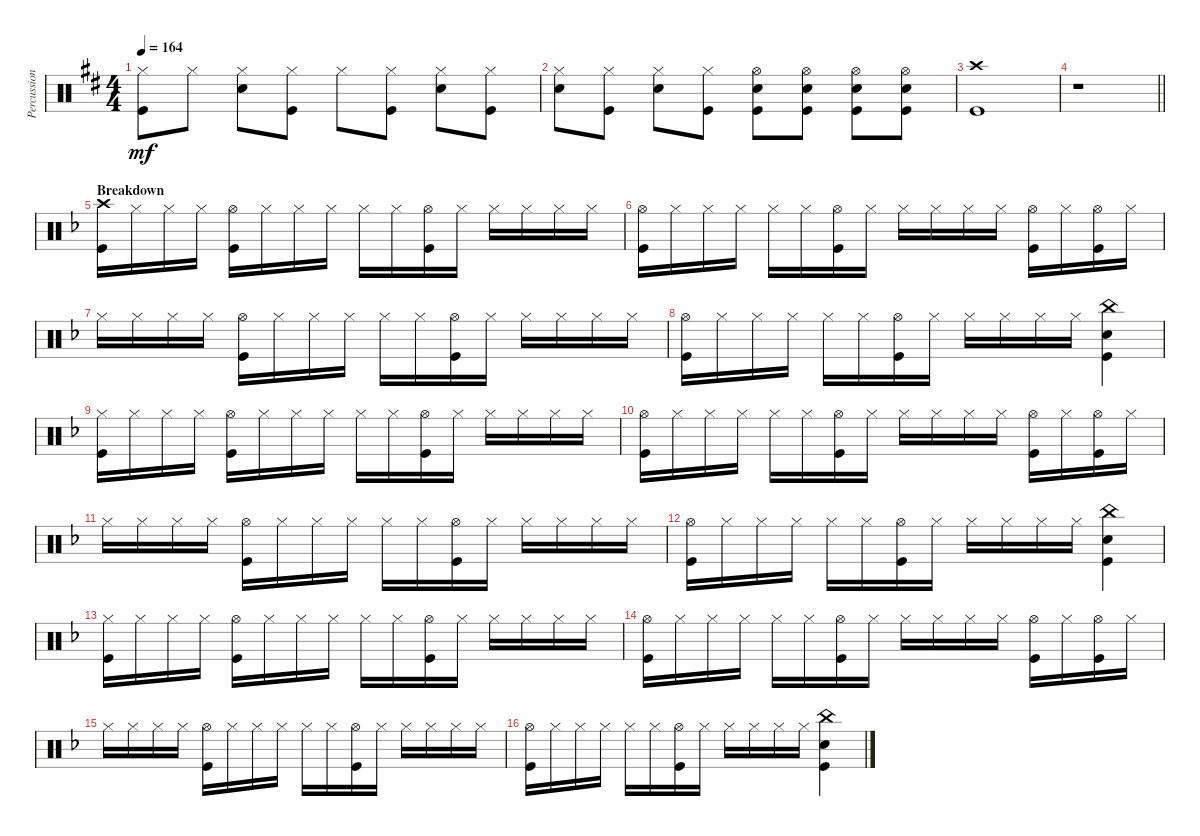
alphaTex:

\track ("Percussions" "Percussion") {instrument percussion}
\staff {score}
\articulation defaults
\ts (4 4)
\tempo 164
\clef neutral
\ks bminor
("Hi-Hat (closed)" "Kick (hit)").8{dy mf} "Hi-Hat (closed)".8 ("Hi-Hat (closed)" "Electric Snare (hit)").8 ("Hi-Hat (closed)" "Kick (hit)").8 "Hi-Hat (closed)".8 ("Hi-Hat (closed)" "Kick (hit)").8 ("Hi-Hat (closed)" "Electric Snare (hit)").8 ("Hi-Hat (closed)" "Kick (hit)").8 |
("Hi-Hat (closed)" "Electric Snare (hit)").8 ("Hi-Hat (closed)" "Kick (hit)").8 ("Hi-Hat (closed)" "Electric Snare (hit)").8 ("Hi-Hat (closed)" "Kick (hit)").8 ("Hi-Hat (open)" "Electric Snare (hit)" "Kick (hit)").8 ("Hi-Hat (open)" "Electric Snare (hit)" "Kick (hit)").8 ("Hi-Hat (open)" "Electric Snare (hit)" "Kick (hit)").8 ("Hi-Hat (open)" "Electric Snare (hit)" "Kick (hit)").8 |
("Crash high (hit)" "Kick (hit)").1 |
\barLineRight lightlight
r.1 |
\section ("" "Breakdown")
\ks dminor
("Crash high (hit)" "Kick (hit)").16 "Hi-Hat (closed)".16 "Hi-Hat (closed)".16 "Hi-Hat (closed)".16 ("Hi-Hat (open)" "Kick (hit)").16 "Hi-Hat (closed)".16 "Hi-Hat (closed)".16 "Hi-Hat (closed)".16 "Hi-Hat (closed)".16 "Hi-Hat (closed)".16 ("Hi-Hat (open)" "Kick (hit)").16 "Hi-Hat (closed)".16 "Hi-Hat (closed)".16 "Hi-Hat (closed)".16 "Hi-Hat (closed)".16 "Hi-Hat (closed)".16 |
("Hi-Hat (open)" "Kick (hit)").16 "Hi-Hat (closed)".16 "Hi-Hat (closed)".16 "Hi-Hat (closed)".16 "Hi-Hat (closed)".16 "Hi-Hat (closed)".16 ("Hi-Hat (open)" "Kick (hit)").16 "Hi-Hat (closed)".16 "Hi-Hat (closed)".16 "Hi-Hat (closed)".16 "Hi-Hat (closed)".16 "Hi-Hat (closed)".16 ("Hi-Hat (open)" "Kick (hit)").16 "Hi-Hat (closed)".16 ("Hi-Hat (open)" "Kick (hit)").16 "Hi-Hat (closed)".16 |
"Hi-Hat (closed)".16 "Hi-Hat (closed)".16 "Hi-Hat (closed)".16 "Hi-Hat (closed)".16 ("Hi-Hat (open)" "Kick (hit)").16 "Hi-Hat (closed)".16 "Hi-Hat (closed)".16 "Hi-Hat (closed)".16 "Hi-Hat (closed)".16 "Hi-Hat (closed)".16 ("Hi-Hat (open)" "Kick (hit)").16 "Hi-Hat (closed)".16 "Hi-Hat (closed)".16 "Hi-Hat (closed)".16 "Hi-Hat (closed)".16 "Hi-Hat (closed)".16 |
("Hi-Hat (open)" "Kick (hit)").16 "Hi-Hat (closed)".16 "Hi-Hat (closed)".16 "Hi-Hat (closed)".16 "Hi-Hat (closed)".16 "Hi-Hat (closed)".16 ("Hi-Hat (open)" "Kick (hit)").16 "Hi-Hat (closed)".16 "Hi-Hat (closed)".16 "Hi-Hat (closed)".16 "Hi-Hat (closed)".16 "Hi-Hat (closed)".16 ("China (hit)" "Electric Snare (hit)" "Kick (hit)").4 |
("Hi-Hat (closed)" "Kick (hit)").16 "Hi-Hat (closed)".16 "Hi-Hat (closed)".16 "Hi-Hat (closed)".16 ("Hi-Hat (open)" "Kick (hit)").16 "Hi-Hat (closed)".16 "Hi-Hat (closed)".16 "Hi-Hat (closed)".16 "Hi-Hat (closed)".16 "Hi-Hat (closed)".16 ("Hi-Hat (open)" "Kick (hit)").16 "Hi-Hat (closed)".16 "Hi-Hat (closed)".16 "Hi-Hat (closed)".16 "Hi-Hat (closed)".16 "Hi-Hat (closed)".16 |
("Hi-Hat (open)" "Kick (hit)").16 "Hi-Hat (closed)".16 "Hi-Hat (closed)".16 "Hi-Hat (closed)".16 "Hi-Hat (closed)".16 "Hi-Hat (closed)".16 ("Hi-Hat (open)" "Kick (hit)").16 "Hi-Hat (closed)".16 "Hi-Hat (closed)".16 "Hi-Hat (closed)".16 "Hi-Hat (closed)".16 "Hi-Hat (closed)".16 ("Hi-Hat (open)" "Kick (hit)").16 "Hi-Hat (closed)".16 ("Hi-Hat (open)" "Kick (hit)").16 "Hi-Hat (closed)".16 |
"Hi-Hat (closed)".16 "Hi-Hat (closed)".16 "Hi-Hat (closed)".16 "Hi-Hat (closed)".16 ("Hi-Hat (open)" "Kick (hit)").16 "Hi-Hat (closed)".16 "Hi-Hat (closed)".16 "Hi-Hat (closed)".16 "Hi-Hat (closed)".16 "Hi-Hat (closed)".16 ("Hi-Hat (open)" "Kick (hit)").16 "Hi-Hat (closed)".16 "Hi-Hat (closed)".16 "Hi-Hat (closed)".16 "Hi-Hat (closed)".16 "Hi-Hat (closed)".16 |
("Hi-Hat (open)" "Kick (hit)").16 "Hi-Hat (closed)".16 "Hi-Hat (closed)".16 "Hi-Hat (closed)".16 "Hi-Hat (closed)".16 "Hi-Hat (closed)".16 ("Hi-Hat (open)" "Kick (hit)").16 "Hi-Hat (closed)".16 "Hi-Hat (closed)".16 "Hi-Hat (closed)".16 "Hi-Hat (closed)".16 "Hi-Hat (closed)".16 ("China (hit)" "Electric Snare (hit)" "Kick (hit)").4 |
("Hi-Hat (closed)" "Kick (hit)").16 "Hi-Hat (closed)".16 "Hi-Hat (closed)".16 "Hi-Hat (closed)".16 ("Hi-Hat (open)" "Kick (hit)").16 "Hi-Hat (closed)".16 "Hi-Hat (closed)".16 "Hi-Hat (closed)".16 "Hi-Hat (closed)".16 "Hi-Hat (closed)".16 ("Hi-Hat (open)" "Kick (hit)").16 "Hi-Hat (closed)".16 "Hi-Hat (closed)".16 "Hi-Hat (closed)".16 "Hi-Hat (closed)".16 "Hi-Hat (closed)".16 |
("Hi-Hat (open)" "Kick (hit)").16 "Hi-Hat (closed)".16 "Hi-Hat (closed)".16 "Hi-Hat (closed)".16 "Hi-Hat (closed)".16 "Hi-Hat (closed)".16 ("Hi-Hat (open)" "Kick (hit)").16 "Hi-Hat (closed)".16 "Hi-Hat (closed)".16 "Hi-Hat (closed)".16 "Hi-Hat (closed)".16 "Hi-Hat (closed)".16 ("Hi-Hat (open)" "Kick (hit)").16 "Hi-Hat (closed)".16 ("Hi-Hat (open)" "Kick (hit)").16 "Hi-Hat (closed)".16 |
"Hi-Hat (closed)".16 "Hi-Hat (closed)".16 "Hi-Hat (closed)".16 "Hi-Hat (closed)".16 ("Hi-Hat (open)" "Kick (hit)").16 "Hi-Hat (closed)".16 "Hi-Hat (closed)".16 "Hi-Hat (closed)".16 "Hi-Hat (closed)".16 "Hi-Hat (closed)".16 ("Hi-Hat (open)" "Kick (hit)").16 "Hi-Hat (closed)".16 "Hi-Hat (closed)".16 "Hi-Hat (closed)".16 "Hi-Hat (closed)".16 "Hi-Hat (closed)".16 |
("Hi-Hat (open)" "Kick (hit)").16 "Hi-Hat (closed)".16 "Hi-Hat (closed)".16 "Hi-Hat (closed)".16 "Hi-Hat (closed)".16 "Hi-Hat (closed)".16 ("Hi-Hat (open)" "Kick (hit)").16 "Hi-Hat (closed)".16 "Hi-Hat (closed)".16 "Hi-Hat (closed)".16 "Hi-Hat (closed)".16 "Hi-Hat (closed)".16 ("China (hit)" "Electric Snare (hit)" "Kick (hit)").4
